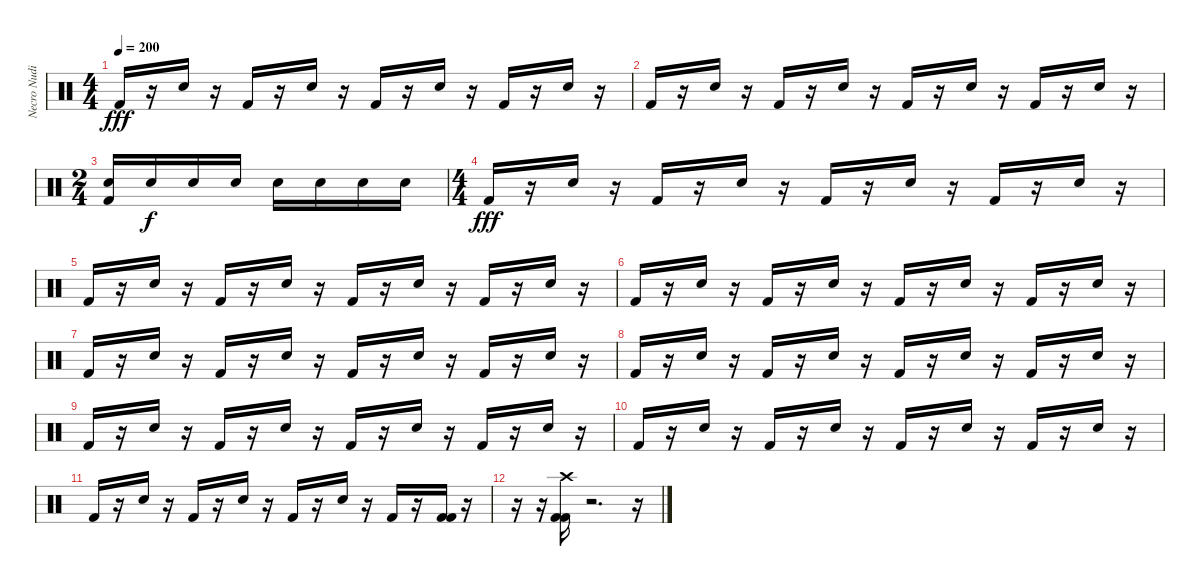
\track ("Necro Nudist" "Necro Nudi") {instrument percussion}
\staff {score}
\articulation defaults
\ts (4 4)
\tempo 200
\clef neutral
\ks c "Kick (hit) 2".16{dy fff}
r.16 "Snare (hit) 2".16 r.16 "Kick (hit) 2".16 r.16 "Snare (hit) 2".16 r.16 "Kick (hit) 2".16 r.16 "Snare (hit) 2".16 r.16 "Kick (hit) 2".16 r.16 "Snare (hit) 2".16 r.16 |
"Kick (hit) 2".16 r.16 "Snare (hit) 2".16 r.16 "Kick (hit) 2".16 r.16 "Snare (hit) 2".16 r.16 "Kick (hit) 2".16 r.16 "Snare (hit) 2".16 r.16 "Kick (hit) 2".16 r.16 "Snare (hit) 2".16 r.16 |
\ts (2 4)
("Snare (hit) 2" "Kick (hit) 2").16 "Snare (hit) 2".16{dy f} "Snare (hit) 2".16 "Snare (hit) 2".16 "Snare (hit) 2".16 "Snare (hit) 2".16 "Snare (hit) 2".16 "Snare (hit) 2".16 |
\ts (4 4)
"Kick (hit) 2".16{dy fff} r.16 "Snare (hit) 2".16 r.16 "Kick (hit) 2".16 r.16 "Snare (hit) 2".16 r.16 "Kick (hit) 2".16 r.16 "Snare (hit) 2".16 r.16 "Kick (hit) 2".16 r.16 "Snare (hit) 2".16 r.16 |
"Kick (hit) 2".16 r.16 "Snare (hit) 2".16 r.16 "Kick (hit) 2".16 r.16 "Snare (hit) 2".16 r.16 "Kick (hit) 2".16 r.16 "Snare (hit) 2".16 r.16 "Kick (hit) 2".16 r.16 "Snare (hit) 2".16 r.16 |
"Kick (hit) 2".16 r.16 "Snare (hit) 2".16 r.16 "Kick (hit) 2".16 r.16 "Snare (hit) 2".16 r.16 "Kick (hit) 2".16 r.16 "Snare (hit) 2".16 r.16 "Kick (hit) 2".16 r.16 "Snare (hit) 2".16 r.16 |
"Kick (hit) 2".16 r.16 "Snare (hit) 2".16 r.16 "Kick (hit) 2".16 r.16 "Snare (hit) 2".16 r.16 "Kick (hit) 2".16 r.16 "Snare (hit) 2".16 r.16 "Kick (hit) 2".16 r.16 "Snare (hit) 2".16 r.16 |
"Kick (hit) 2".16 r.16 "Snare (hit) 2".16 r.16 "Kick (hit) 2".16 r.16 "Snare (hit) 2".16 r.16 "Kick (hit) 2".16 r.16 "Snare (hit) 2".16 r.16 "Kick (hit) 2".16 r.16 "Snare (hit) 2".16 r.16 |
"Kick (hit) 2".16 r.16 "Snare (hit) 2".16 r.16 "Kick (hit) 2".16 r.16 "Snare (hit) 2".16 r.16 "Kick (hit) 2".16 r.16 "Snare (hit) 2".16 r.16 "Kick (hit) 2".16 r.16 "Snare (hit) 2".16 r.16 |
"Kick (hit) 2".16 r.16 "Snare (hit) 2".16 r.16 "Kick (hit) 2".16 r.16 "Snare (hit) 2".16 r.16 "Kick (hit) 2".16 r.16 "Snare (hit) 2".16 r.16 "Kick (hit) 2".16 r.16 "Snare (hit) 2".16 r.16 |
"Kick (hit) 2".16 r.16 "Snare (hit) 2".16 r.16 "Kick (hit) 2".16 r.16 "Snare (hit) 2".16 r.16 "Kick (hit) 2".16 r.16 "Snare (hit) 2".16 r.16 "Kick (hit) 2".16 r.16 ("Kick (hit) 2" "Kick (hit) 2").16 r.16 |
r.16 r.16 ("Crash high (hit)" "Kick (hit) 2" "Kick (hit) 2").16 r.2{d} r.16
